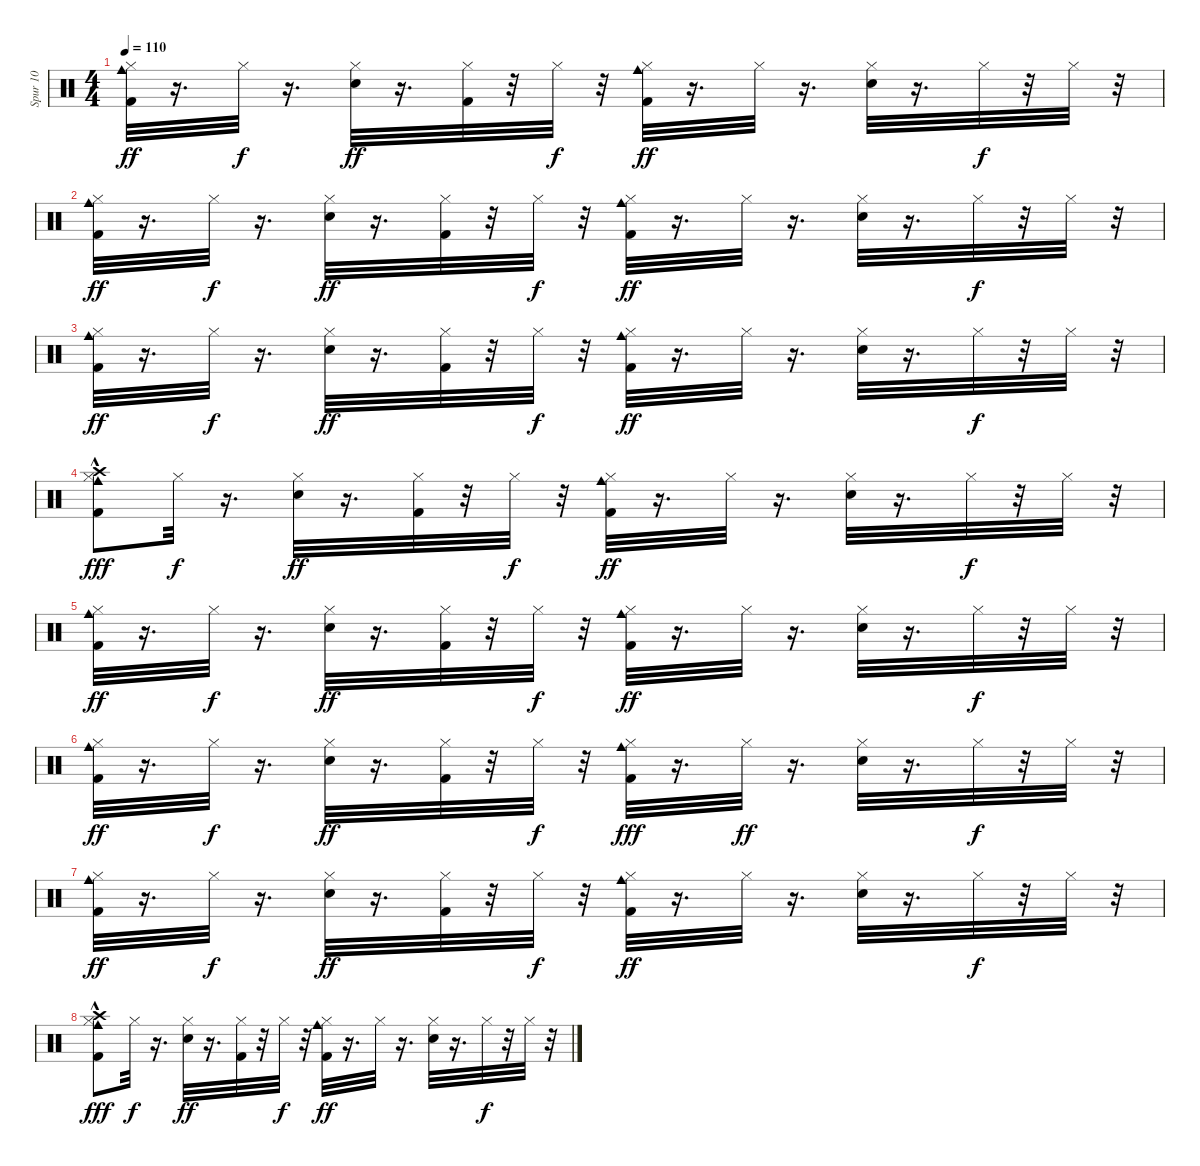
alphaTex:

\track ("Spur 10" "Spur 10") {instrument percussion}
\staff {score}
\articulation defaults
\ts (4 4)
\tempo 110
\clef neutral
\ks c
("Kick (hit) 2" "Cowbell medium (hit)" "Hi-Hat (closed)").32{dy ff} r.16{d} "Hi-Hat (closed)".32{dy f} r.16{d} ("Snare (hit) 2" "Hi-Hat (closed)").32{dy ff} r.16{d} ("Kick (hit) 2" "Hi-Hat (closed)").32 r.32 "Hi-Hat (closed)".32{dy f} r.32 ("Kick (hit) 2" "Cowbell medium (hit)" "Hi-Hat (closed)").32{dy ff} r.16{d} "Hi-Hat (closed)".32 r.16{d} ("Snare (hit) 2" "Hi-Hat (closed)").32 r.16{d} "Hi-Hat (closed)".32{dy f} r.32 "Hi-Hat (closed)".32 r.32 |
("Kick (hit) 2" "Cowbell medium (hit)" "Hi-Hat (closed)").32{dy ff} r.16{d} "Hi-Hat (closed)".32{dy f} r.16{d} ("Snare (hit) 2" "Hi-Hat (closed)").32{dy ff} r.16{d} ("Kick (hit) 2" "Hi-Hat (closed)").32 r.32 "Hi-Hat (closed)".32{dy f} r.32 ("Kick (hit) 2" "Cowbell medium (hit)" "Hi-Hat (closed)").32{dy ff} r.16{d} "Hi-Hat (closed)".32 r.16{d} ("Snare (hit) 2" "Hi-Hat (closed)").32 r.16{d} "Hi-Hat (closed)".32{dy f} r.32 "Hi-Hat (closed)".32 r.32 |
("Kick (hit) 2" "Cowbell medium (hit)" "Hi-Hat (closed)").32{dy ff} r.16{d} "Hi-Hat (closed)".32{dy f} r.16{d} ("Snare (hit) 2" "Hi-Hat (closed)").32{dy ff} r.16{d} ("Kick (hit) 2" "Hi-Hat (closed)").32 r.32 "Hi-Hat (closed)".32{dy f} r.32 ("Kick (hit) 2" "Cowbell medium (hit)" "Hi-Hat (closed)").32{dy ff} r.16{d} "Hi-Hat (closed)".32 r.16{d} ("Snare (hit) 2" "Hi-Hat (closed)").32 r.16{d} "Hi-Hat (closed)".32{dy f} r.32 "Hi-Hat (closed)".32 r.32 |
("Kick (hit) 2" "Cowbell medium (hit)" "Hi-Hat (closed)" "Crash high (hit)"{hac}).8{dy fff} "Hi-Hat (closed)".32{dy f} r.16{d} ("Snare (hit) 2" "Hi-Hat (closed)").32{dy ff} r.16{d} ("Kick (hit) 2" "Hi-Hat (closed)").32 r.32 "Hi-Hat (closed)".32{dy f} r.32 ("Kick (hit) 2" "Cowbell medium (hit)" "Hi-Hat (closed)").32{dy ff} r.16{d} "Hi-Hat (closed)".32 r.16{d} ("Snare (hit) 2" "Hi-Hat (closed)").32 r.16{d} "Hi-Hat (closed)".32{dy f} r.32 "Hi-Hat (closed)".32 r.32 |
("Kick (hit) 2" "Cowbell medium (hit)" "Hi-Hat (closed)").32{dy ff} r.16{d} "Hi-Hat (closed)".32{dy f} r.16{d} ("Snare (hit) 2" "Hi-Hat (closed)").32{dy ff} r.16{d} ("Kick (hit) 2" "Hi-Hat (closed)").32 r.32 "Hi-Hat (closed)".32{dy f} r.32 ("Kick (hit) 2" "Cowbell medium (hit)" "Hi-Hat (closed)").32{dy ff} r.16{d} "Hi-Hat (closed)".32 r.16{d} ("Snare (hit) 2" "Hi-Hat (closed)").32 r.16{d} "Hi-Hat (closed)".32{dy f} r.32 "Hi-Hat (closed)".32 r.32 |
("Kick (hit) 2" "Cowbell medium (hit)" "Hi-Hat (closed)").32{dy ff} r.16{d} "Hi-Hat (closed)".32{dy f} r.16{d} ("Snare (hit) 2" "Hi-Hat (closed)").32{dy ff} r.16{d} ("Kick (hit) 2" "Hi-Hat (closed)").32 r.32 "Hi-Hat (closed)".32{dy f} r.32 ("Hi-Hat (closed)" "Cowbell medium (hit)" "Kick (hit) 2").32{dy fff} r.16{d} "Hi-Hat (closed)".32{dy ff} r.16{d} ("Snare (hit) 2" "Hi-Hat (closed)").32 r.16{d} "Hi-Hat (closed)".32{dy f} r.32 "Hi-Hat (closed)".32 r.32 |
("Kick (hit) 2" "Cowbell medium (hit)" "Hi-Hat (closed)").32{dy ff} r.16{d} "Hi-Hat (closed)".32{dy f} r.16{d} ("Snare (hit) 2" "Hi-Hat (closed)").32{dy ff} r.16{d} ("Kick (hit) 2" "Hi-Hat (closed)").32 r.32 "Hi-Hat (closed)".32{dy f} r.32 ("Kick (hit) 2" "Cowbell medium (hit)" "Hi-Hat (closed)").32{dy ff} r.16{d} "Hi-Hat (closed)".32 r.16{d} ("Snare (hit) 2" "Hi-Hat (closed)").32 r.16{d} "Hi-Hat (closed)".32{dy f} r.32 "Hi-Hat (closed)".32 r.32 |
("Kick (hit) 2" "Cowbell medium (hit)" "Hi-Hat (closed)" "Crash high (hit)"{hac}).8{dy fff} "Hi-Hat (closed)".32{dy f} r.16{d} ("Snare (hit) 2" "Hi-Hat (closed)").32{dy ff} r.16{d} ("Kick (hit) 2" "Hi-Hat (closed)").32 r.32 "Hi-Hat (closed)".32{dy f} r.32 ("Kick (hit) 2" "Cowbell medium (hit)" "Hi-Hat (closed)").32{dy ff} r.16{d} "Hi-Hat (closed)".32 r.16{d} ("Snare (hit) 2" "Hi-Hat (closed)").32 r.16{d} "Hi-Hat (closed)".32{dy f} r.32 "Hi-Hat (closed)".32 r.32
